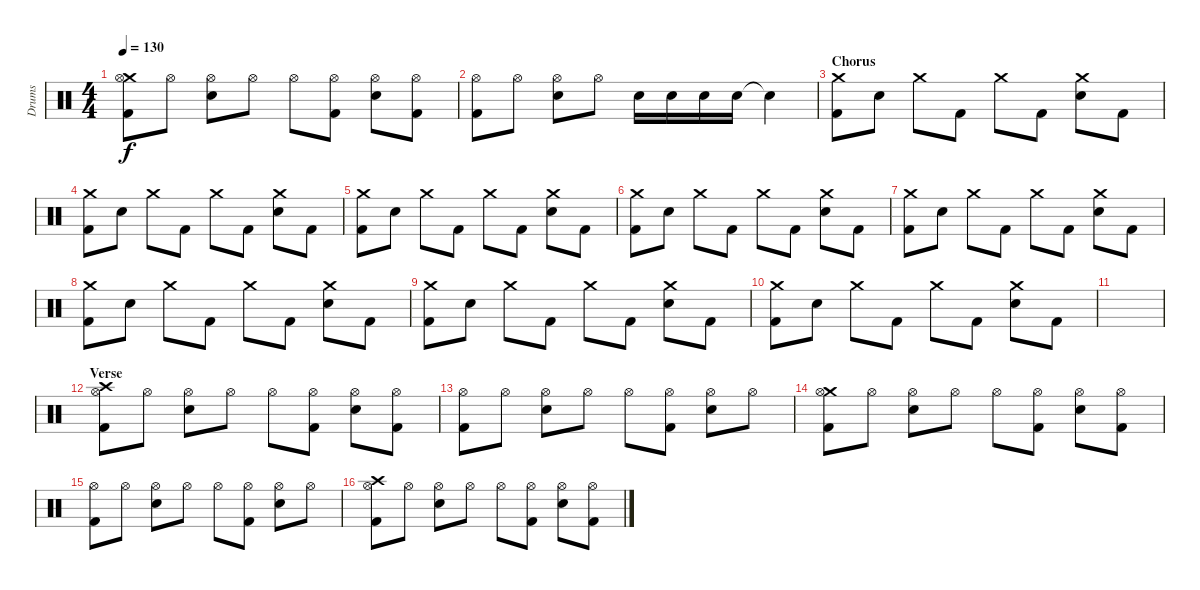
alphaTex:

\track ("Drums" "Drums") {instrument percussion}
\staff {score}
\articulation defaults
\ts (4 4)
\tempo 130
\clef neutral
\ks c
("Crash medium (hit)" "Hi-Hat (open)" "Kick (hit) 2").8{dy f} "Hi-Hat (open)".8 ("Hi-Hat (open)" "Electric Snare (hit)").8 "Hi-Hat (open)".8 "Hi-Hat (open)".8 ("Hi-Hat (open)" "Kick (hit) 2").8 ("Hi-Hat (open)" "Electric Snare (hit)").8 ("Hi-Hat (open)" "Kick (hit) 2").8 |
("Hi-Hat (open)" "Kick (hit) 2").8 "Hi-Hat (open)".8 ("Hi-Hat (open)" "Electric Snare (hit)").8 "Hi-Hat (open)".8 "Electric Snare (hit)".16 "Electric Snare (hit)".16 "Electric Snare (hit)".16 "Electric Snare (hit)".16 "Snare (hit)"{t}.4 |
\section ("" "Chorus")
("Crash medium (hit)" "Kick (hit) 2").8 "Electric Snare (hit)".8 "Crash medium (hit)".8 "Kick (hit) 2".8 "Crash medium (hit)".8 "Kick (hit) 2".8 ("Crash medium (hit)" "Electric Snare (hit)").8 "Kick (hit) 2".8 |
("Crash medium (hit)" "Kick (hit) 2").8 "Electric Snare (hit)".8 "Crash medium (hit)".8 "Kick (hit) 2".8 "Crash medium (hit)".8 "Kick (hit) 2".8 ("Crash medium (hit)" "Electric Snare (hit)").8 "Kick (hit) 2".8 |
("Crash medium (hit)" "Kick (hit) 2").8 "Electric Snare (hit)".8 "Crash medium (hit)".8 "Kick (hit) 2".8 "Crash medium (hit)".8 "Kick (hit) 2".8 ("Crash medium (hit)" "Electric Snare (hit)").8 "Kick (hit) 2".8 |
("Crash medium (hit)" "Kick (hit) 2").8 "Electric Snare (hit)".8 "Crash medium (hit)".8 "Kick (hit) 2".8 "Crash medium (hit)".8 "Kick (hit) 2".8 ("Crash medium (hit)" "Electric Snare (hit)").8 "Kick (hit) 2".8 |
("Crash medium (hit)" "Kick (hit) 2").8 "Electric Snare (hit)".8 "Crash medium (hit)".8 "Kick (hit) 2".8 "Crash medium (hit)".8 "Kick (hit) 2".8 ("Crash medium (hit)" "Electric Snare (hit)").8 "Kick (hit) 2".8 |
("Crash medium (hit)" "Kick (hit) 2").8 "Electric Snare (hit)".8 "Crash medium (hit)".8 "Kick (hit) 2".8 "Crash medium (hit)".8 "Kick (hit) 2".8 ("Crash medium (hit)" "Electric Snare (hit)").8 "Kick (hit) 2".8 |
("Crash medium (hit)" "Kick (hit) 2").8 "Electric Snare (hit)".8 "Crash medium (hit)".8 "Kick (hit) 2".8 "Crash medium (hit)".8 "Kick (hit) 2".8 ("Crash medium (hit)" "Electric Snare (hit)").8 "Kick (hit) 2".8 |
("Crash medium (hit)" "Kick (hit) 2").8 "Electric Snare (hit)".8 "Crash medium (hit)".8 "Kick (hit) 2".8 "Crash medium (hit)".8 "Kick (hit) 2".8 ("Crash medium (hit)" "Electric Snare (hit)").8 "Kick (hit) 2".8 |
|
\section ("" "Verse")
("Crash high (hit)" "Hi-Hat (open)" "Kick (hit) 2").8 "Hi-Hat (open)".8 ("Hi-Hat (open)" "Electric Snare (hit)").8 "Hi-Hat (open)".8 "Hi-Hat (open)".8 ("Hi-Hat (open)" "Kick (hit) 2").8 ("Hi-Hat (open)" "Electric Snare (hit)").8 ("Hi-Hat (open)" "Kick (hit) 2").8 |
("Hi-Hat (open)" "Kick (hit) 2").8 "Hi-Hat (open)".8 ("Hi-Hat (open)" "Electric Snare (hit)").8 "Hi-Hat (open)".8 "Hi-Hat (open)".8 ("Hi-Hat (open)" "Kick (hit) 2").8 ("Hi-Hat (open)" "Electric Snare (hit)").8 "Hi-Hat (open)".8 |
("Crash medium (hit)" "Hi-Hat (open)" "Kick (hit) 2").8 "Hi-Hat (open)".8 ("Hi-Hat (open)" "Electric Snare (hit)").8 "Hi-Hat (open)".8 "Hi-Hat (open)".8 ("Hi-Hat (open)" "Kick (hit) 2").8 ("Hi-Hat (open)" "Electric Snare (hit)").8 ("Hi-Hat (open)" "Kick (hit) 2").8 |
("Hi-Hat (open)" "Kick (hit) 2").8 "Hi-Hat (open)".8 ("Hi-Hat (open)" "Electric Snare (hit)").8 "Hi-Hat (open)".8 "Hi-Hat (open)".8 ("Hi-Hat (open)" "Kick (hit) 2").8 ("Hi-Hat (open)" "Electric Snare (hit)").8 "Hi-Hat (open)".8 |
("Crash high (hit)" "Hi-Hat (open)" "Kick (hit) 2").8 "Hi-Hat (open)".8 ("Hi-Hat (open)" "Electric Snare (hit)").8 "Hi-Hat (open)".8 "Hi-Hat (open)".8 ("Hi-Hat (open)" "Kick (hit) 2").8 ("Hi-Hat (open)" "Electric Snare (hit)").8 ("Hi-Hat (open)" "Kick (hit) 2").8
